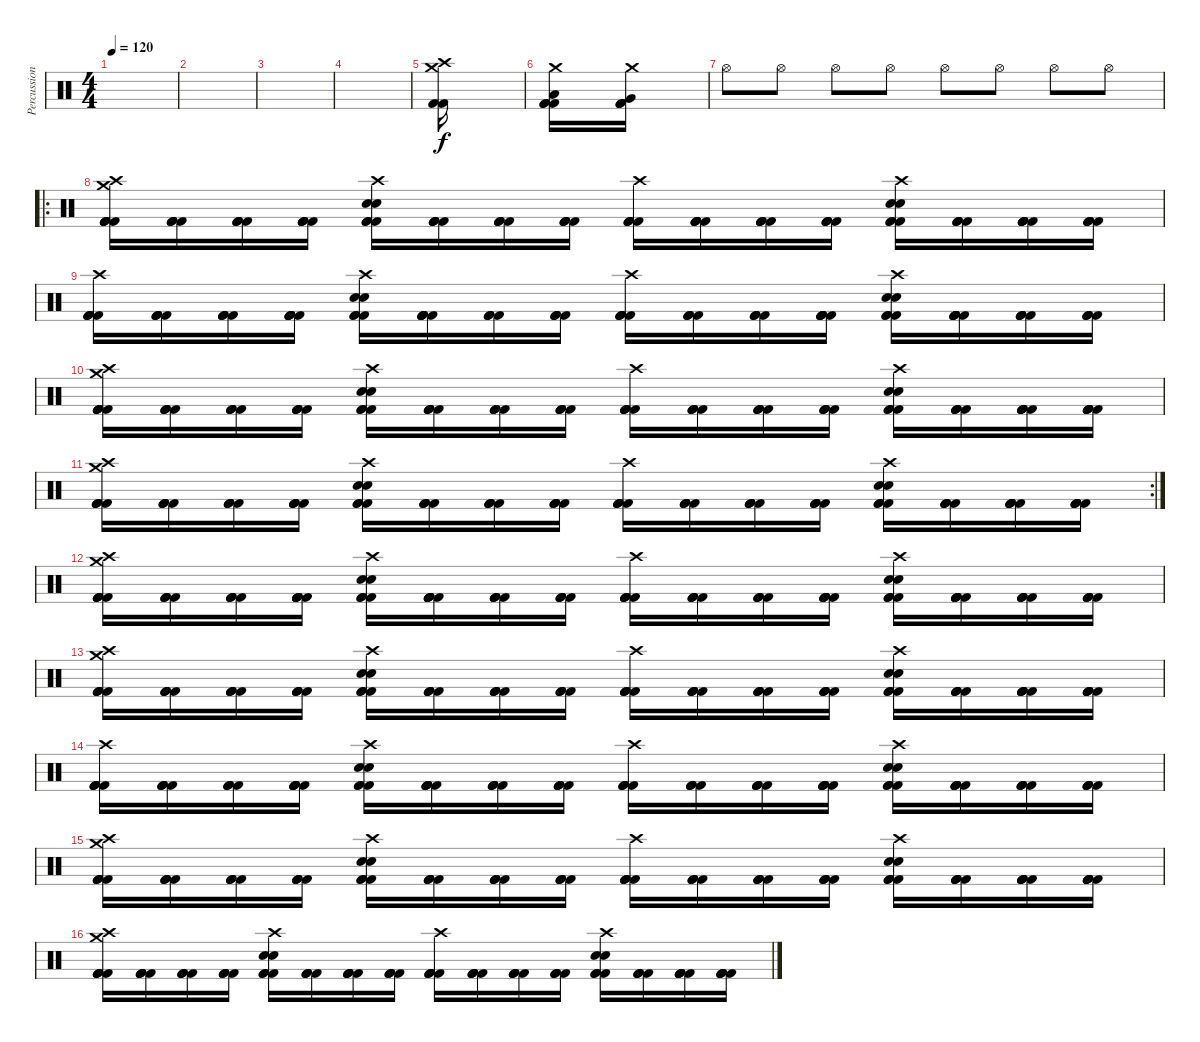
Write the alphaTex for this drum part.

\track ("Percussion" "Percussion") {instrument percussion}
\staff {score}
\articulation defaults
\ts (4 4)
\tempo 120
\clef neutral
\ks c
|
|
|
|
("Crash medium (hit)" "Crash high (hit)" "Kick (hit) 2" "Kick (hit) 2").16 |
("Crash medium (hit)" "Low Tom (hit)" "Kick (hit) 2" "Kick (hit) 2" "Kick (hit) 2").16 ("Crash medium (hit)" "Very Low Tom (hit)" "Kick (hit) 2" "Kick (hit) 2" "Kick (hit) 2").16 |
"Hi-Hat (open)".8 "Hi-Hat (open)".8 "Hi-Hat (open)".8 "Hi-Hat (open)".8 "Hi-Hat (open)".8 "Hi-Hat (open)".8 "Hi-Hat (open)".8 "Hi-Hat (open)".8 |
\ro
("Crash medium (hit)" "Kick (hit) 2" "Crash high (hit)" "Kick (hit) 2" "Kick (hit) 2" "Kick (hit) 2").16 ("Kick (hit) 2" "Kick (hit) 2" "Kick (hit) 2" "Kick (hit) 2").16 ("Kick (hit) 2" "Kick (hit) 2" "Kick (hit) 2" "Kick (hit) 2").16 ("Kick (hit) 2" "Kick (hit) 2" "Kick (hit) 2" "Kick (hit) 2").16 ("Snare (hit) 2" "Electric Snare (hit)" "Crash high (hit)" "Kick (hit) 2" "Kick (hit) 2" "Kick (hit) 2").16 ("Kick (hit) 2" "Kick (hit) 2" "Kick (hit) 2" "Kick (hit) 2").16 ("Kick (hit) 2" "Kick (hit) 2" "Kick (hit) 2" "Kick (hit) 2").16 ("Kick (hit) 2" "Kick (hit) 2" "Kick (hit) 2" "Kick (hit) 2").16 ("Kick (hit) 2" "Crash high (hit)" "Kick (hit) 2" "Kick (hit) 2" "Kick (hit) 2").16 ("Kick (hit) 2" "Kick (hit) 2" "Kick (hit) 2" "Kick (hit) 2").16 ("Kick (hit) 2" "Kick (hit) 2" "Kick (hit) 2" "Kick (hit) 2").16 ("Kick (hit) 2" "Kick (hit) 2" "Kick (hit) 2" "Kick (hit) 2").16 ("Snare (hit) 2" "Electric Snare (hit)" "Crash high (hit)" "Kick (hit) 2" "Kick (hit) 2" "Kick (hit) 2").16 ("Kick (hit) 2" "Kick (hit) 2" "Kick (hit) 2" "Kick (hit) 2").16 ("Kick (hit) 2" "Kick (hit) 2" "Kick (hit) 2" "Kick (hit) 2" "Kick (hit) 2").16 ("Kick (hit) 2" "Kick (hit) 2" "Kick (hit) 2" "Kick (hit) 2" "Kick (hit) 2").16 |
("Kick (hit) 2" "Crash high (hit)" "Kick (hit) 2" "Kick (hit) 2" "Kick (hit) 2").16 ("Kick (hit) 2" "Kick (hit) 2" "Kick (hit) 2" "Kick (hit) 2").16 ("Kick (hit) 2" "Kick (hit) 2" "Kick (hit) 2" "Kick (hit) 2").16 ("Kick (hit) 2" "Kick (hit) 2" "Kick (hit) 2" "Kick (hit) 2" "Kick (hit) 2" "Kick (hit) 2").16 ("Snare (hit) 2" "Electric Snare (hit)" "Crash high (hit)" "Kick (hit) 2" "Kick (hit) 2" "Kick (hit) 2").16 ("Kick (hit) 2" "Kick (hit) 2" "Kick (hit) 2" "Kick (hit) 2" "Kick (hit) 2" "Kick (hit) 2").16 ("Kick (hit) 2" "Kick (hit) 2" "Kick (hit) 2" "Kick (hit) 2").16 ("Kick (hit) 2" "Kick (hit) 2" "Kick (hit) 2" "Kick (hit) 2").16 ("Kick (hit) 2" "Crash high (hit)" "Kick (hit) 2" "Kick (hit) 2" "Kick (hit) 2").16 ("Kick (hit) 2" "Kick (hit) 2" "Kick (hit) 2" "Kick (hit) 2").16 ("Kick (hit) 2" "Kick (hit) 2" "Kick (hit) 2" "Kick (hit) 2").16 ("Kick (hit) 2" "Kick (hit) 2" "Kick (hit) 2" "Kick (hit) 2" "Kick (hit) 2" "Kick (hit) 2").16 ("Snare (hit) 2" "Electric Snare (hit)" "Crash high (hit)" "Kick (hit) 2" "Kick (hit) 2" "Kick (hit) 2").16 ("Kick (hit) 2" "Kick (hit) 2" "Kick (hit) 2" "Kick (hit) 2" "Kick (hit) 2" "Kick (hit) 2").16 ("Kick (hit) 2" "Kick (hit) 2" "Kick (hit) 2" "Kick (hit) 2").16 ("Kick (hit) 2" "Kick (hit) 2" "Kick (hit) 2" "Kick (hit) 2").16 |
("Crash medium (hit)" "Kick (hit) 2" "Crash high (hit)" "Kick (hit) 2" "Kick (hit) 2" "Kick (hit) 2").16 ("Kick (hit) 2" "Kick (hit) 2" "Kick (hit) 2" "Kick (hit) 2").16 ("Kick (hit) 2" "Kick (hit) 2" "Kick (hit) 2" "Kick (hit) 2").16 ("Kick (hit) 2" "Kick (hit) 2" "Kick (hit) 2" "Kick (hit) 2").16 ("Snare (hit) 2" "Electric Snare (hit)" "Crash high (hit)" "Kick (hit) 2" "Kick (hit) 2" "Kick (hit) 2").16 ("Kick (hit) 2" "Kick (hit) 2" "Kick (hit) 2" "Kick (hit) 2").16 ("Kick (hit) 2" "Kick (hit) 2" "Kick (hit) 2" "Kick (hit) 2").16 ("Kick (hit) 2" "Kick (hit) 2" "Kick (hit) 2" "Kick (hit) 2").16 ("Kick (hit) 2" "Crash high (hit)" "Kick (hit) 2" "Kick (hit) 2" "Kick (hit) 2").16 ("Kick (hit) 2" "Kick (hit) 2" "Kick (hit) 2" "Kick (hit) 2").16 ("Kick (hit) 2" "Kick (hit) 2" "Kick (hit) 2" "Kick (hit) 2").16 ("Kick (hit) 2" "Kick (hit) 2" "Kick (hit) 2" "Kick (hit) 2").16 ("Snare (hit) 2" "Electric Snare (hit)" "Crash high (hit)" "Kick (hit) 2" "Kick (hit) 2" "Kick (hit) 2").16 ("Kick (hit) 2" "Kick (hit) 2" "Kick (hit) 2" "Kick (hit) 2").16 ("Kick (hit) 2" "Kick (hit) 2" "Kick (hit) 2" "Kick (hit) 2" "Kick (hit) 2").16 ("Kick (hit) 2" "Kick (hit) 2" "Kick (hit) 2" "Kick (hit) 2" "Kick (hit) 2").16 |
\rc 2
("Crash medium (hit)" "Kick (hit) 2" "Crash high (hit)" "Kick (hit) 2" "Kick (hit) 2" "Kick (hit) 2").16 ("Kick (hit) 2" "Kick (hit) 2" "Kick (hit) 2" "Kick (hit) 2").16 ("Kick (hit) 2" "Kick (hit) 2" "Kick (hit) 2" "Kick (hit) 2").16 ("Kick (hit) 2" "Kick (hit) 2" "Kick (hit) 2" "Kick (hit) 2").16 ("Snare (hit) 2" "Electric Snare (hit)" "Crash high (hit)" "Kick (hit) 2" "Kick (hit) 2" "Kick (hit) 2").16 ("Kick (hit) 2" "Kick (hit) 2" "Kick (hit) 2" "Kick (hit) 2").16 ("Kick (hit) 2" "Kick (hit) 2" "Kick (hit) 2" "Kick (hit) 2").16 ("Kick (hit) 2" "Kick (hit) 2" "Kick (hit) 2" "Kick (hit) 2").16 ("Kick (hit) 2" "Crash high (hit)" "Kick (hit) 2" "Kick (hit) 2" "Kick (hit) 2").16 ("Kick (hit) 2" "Kick (hit) 2" "Kick (hit) 2" "Kick (hit) 2").16 ("Kick (hit) 2" "Kick (hit) 2" "Kick (hit) 2" "Kick (hit) 2").16 ("Kick (hit) 2" "Kick (hit) 2" "Kick (hit) 2" "Kick (hit) 2").16 ("Snare (hit) 2" "Electric Snare (hit)" "Crash high (hit)" "Kick (hit) 2" "Kick (hit) 2" "Kick (hit) 2").16 ("Kick (hit) 2" "Kick (hit) 2" "Kick (hit) 2" "Kick (hit) 2").16 ("Kick (hit) 2" "Kick (hit) 2" "Kick (hit) 2" "Kick (hit) 2" "Kick (hit) 2").16 ("Kick (hit) 2" "Kick (hit) 2" "Kick (hit) 2" "Kick (hit) 2" "Kick (hit) 2").16 |
("Kick (hit) 2" "Crash medium (hit)" "Crash high (hit)" "Kick (hit) 2" "Kick (hit) 2" "Kick (hit) 2").16 ("Kick (hit) 2" "Kick (hit) 2" "Kick (hit) 2" "Kick (hit) 2").16 ("Kick (hit) 2" "Kick (hit) 2" "Kick (hit) 2" "Kick (hit) 2").16 ("Kick (hit) 2" "Kick (hit) 2" "Kick (hit) 2" "Kick (hit) 2" "Kick (hit) 2" "Kick (hit) 2").16 ("Snare (hit) 2" "Electric Snare (hit)" "Crash high (hit)" "Kick (hit) 2" "Kick (hit) 2" "Kick (hit) 2").16 ("Kick (hit) 2" "Kick (hit) 2" "Kick (hit) 2" "Kick (hit) 2" "Kick (hit) 2" "Kick (hit) 2").16 ("Kick (hit) 2" "Kick (hit) 2" "Kick (hit) 2" "Kick (hit) 2").16 ("Kick (hit) 2" "Kick (hit) 2" "Kick (hit) 2" "Kick (hit) 2").16 ("Kick (hit) 2" "Crash high (hit)" "Kick (hit) 2" "Kick (hit) 2" "Kick (hit) 2").16 ("Kick (hit) 2" "Kick (hit) 2" "Kick (hit) 2" "Kick (hit) 2").16 ("Kick (hit) 2" "Kick (hit) 2" "Kick (hit) 2" "Kick (hit) 2").16 ("Kick (hit) 2" "Kick (hit) 2" "Kick (hit) 2" "Kick (hit) 2" "Kick (hit) 2" "Kick (hit) 2").16 ("Snare (hit) 2" "Electric Snare (hit)" "Crash high (hit)" "Kick (hit) 2" "Kick (hit) 2" "Kick (hit) 2").16 ("Kick (hit) 2" "Kick (hit) 2" "Kick (hit) 2" "Kick (hit) 2" "Kick (hit) 2" "Kick (hit) 2").16 ("Kick (hit) 2" "Kick (hit) 2" "Kick (hit) 2" "Kick (hit) 2").16 ("Kick (hit) 2" "Kick (hit) 2" "Kick (hit) 2" "Kick (hit) 2").16 |
("Crash medium (hit)" "Kick (hit) 2" "Crash high (hit)" "Kick (hit) 2" "Kick (hit) 2" "Kick (hit) 2").16 ("Kick (hit) 2" "Kick (hit) 2" "Kick (hit) 2" "Kick (hit) 2").16 ("Kick (hit) 2" "Kick (hit) 2" "Kick (hit) 2" "Kick (hit) 2").16 ("Kick (hit) 2" "Kick (hit) 2" "Kick (hit) 2" "Kick (hit) 2").16 ("Snare (hit) 2" "Electric Snare (hit)" "Crash high (hit)" "Kick (hit) 2" "Kick (hit) 2" "Kick (hit) 2").16 ("Kick (hit) 2" "Kick (hit) 2" "Kick (hit) 2" "Kick (hit) 2").16 ("Kick (hit) 2" "Kick (hit) 2" "Kick (hit) 2" "Kick (hit) 2").16 ("Kick (hit) 2" "Kick (hit) 2" "Kick (hit) 2" "Kick (hit) 2").16 ("Kick (hit) 2" "Crash high (hit)" "Kick (hit) 2" "Kick (hit) 2" "Kick (hit) 2").16 ("Kick (hit) 2" "Kick (hit) 2" "Kick (hit) 2" "Kick (hit) 2").16 ("Kick (hit) 2" "Kick (hit) 2" "Kick (hit) 2" "Kick (hit) 2").16 ("Kick (hit) 2" "Kick (hit) 2" "Kick (hit) 2" "Kick (hit) 2").16 ("Snare (hit) 2" "Electric Snare (hit)" "Crash high (hit)" "Kick (hit) 2" "Kick (hit) 2" "Kick (hit) 2").16 ("Kick (hit) 2" "Kick (hit) 2" "Kick (hit) 2" "Kick (hit) 2").16 ("Kick (hit) 2" "Kick (hit) 2" "Kick (hit) 2" "Kick (hit) 2" "Kick (hit) 2").16 ("Kick (hit) 2" "Kick (hit) 2" "Kick (hit) 2" "Kick (hit) 2" "Kick (hit) 2").16 |
("Kick (hit) 2" "Crash high (hit)" "Kick (hit) 2" "Kick (hit) 2" "Kick (hit) 2").16 ("Kick (hit) 2" "Kick (hit) 2" "Kick (hit) 2" "Kick (hit) 2").16 ("Kick (hit) 2" "Kick (hit) 2" "Kick (hit) 2" "Kick (hit) 2").16 ("Kick (hit) 2" "Kick (hit) 2" "Kick (hit) 2" "Kick (hit) 2" "Kick (hit) 2" "Kick (hit) 2").16 ("Snare (hit) 2" "Electric Snare (hit)" "Crash high (hit)" "Kick (hit) 2" "Kick (hit) 2" "Kick (hit) 2").16 ("Kick (hit) 2" "Kick (hit) 2" "Kick (hit) 2" "Kick (hit) 2" "Kick (hit) 2" "Kick (hit) 2").16 ("Kick (hit) 2" "Kick (hit) 2" "Kick (hit) 2" "Kick (hit) 2").16 ("Kick (hit) 2" "Kick (hit) 2" "Kick (hit) 2" "Kick (hit) 2").16 ("Kick (hit) 2" "Crash high (hit)" "Kick (hit) 2" "Kick (hit) 2" "Kick (hit) 2").16 ("Kick (hit) 2" "Kick (hit) 2" "Kick (hit) 2" "Kick (hit) 2").16 ("Kick (hit) 2" "Kick (hit) 2" "Kick (hit) 2" "Kick (hit) 2").16 ("Kick (hit) 2" "Kick (hit) 2" "Kick (hit) 2" "Kick (hit) 2" "Kick (hit) 2" "Kick (hit) 2").16 ("Snare (hit) 2" "Electric Snare (hit)" "Crash high (hit)" "Kick (hit) 2" "Kick (hit) 2" "Kick (hit) 2").16 ("Kick (hit) 2" "Kick (hit) 2" "Kick (hit) 2" "Kick (hit) 2" "Kick (hit) 2" "Kick (hit) 2").16 ("Kick (hit) 2" "Kick (hit) 2" "Kick (hit) 2" "Kick (hit) 2").16 ("Kick (hit) 2" "Kick (hit) 2" "Kick (hit) 2" "Kick (hit) 2").16 |
("Crash medium (hit)" "Kick (hit) 2" "Crash high (hit)" "Kick (hit) 2" "Kick (hit) 2" "Kick (hit) 2").16 ("Kick (hit) 2" "Kick (hit) 2" "Kick (hit) 2" "Kick (hit) 2").16 ("Kick (hit) 2" "Kick (hit) 2" "Kick (hit) 2" "Kick (hit) 2").16 ("Kick (hit) 2" "Kick (hit) 2" "Kick (hit) 2" "Kick (hit) 2").16 ("Snare (hit) 2" "Electric Snare (hit)" "Crash high (hit)" "Kick (hit) 2" "Kick (hit) 2" "Kick (hit) 2").16 ("Kick (hit) 2" "Kick (hit) 2" "Kick (hit) 2" "Kick (hit) 2").16 ("Kick (hit) 2" "Kick (hit) 2" "Kick (hit) 2" "Kick (hit) 2").16 ("Kick (hit) 2" "Kick (hit) 2" "Kick (hit) 2" "Kick (hit) 2").16 ("Kick (hit) 2" "Crash high (hit)" "Kick (hit) 2" "Kick (hit) 2" "Kick (hit) 2").16 ("Kick (hit) 2" "Kick (hit) 2" "Kick (hit) 2" "Kick (hit) 2").16 ("Kick (hit) 2" "Kick (hit) 2" "Kick (hit) 2" "Kick (hit) 2").16 ("Kick (hit) 2" "Kick (hit) 2" "Kick (hit) 2" "Kick (hit) 2").16 ("Snare (hit) 2" "Electric Snare (hit)" "Crash high (hit)" "Kick (hit) 2" "Kick (hit) 2" "Kick (hit) 2").16 ("Kick (hit) 2" "Kick (hit) 2" "Kick (hit) 2" "Kick (hit) 2").16 ("Kick (hit) 2" "Kick (hit) 2" "Kick (hit) 2" "Kick (hit) 2" "Kick (hit) 2").16 ("Kick (hit) 2" "Kick (hit) 2" "Kick (hit) 2" "Kick (hit) 2" "Kick (hit) 2").16 |
("Crash medium (hit)" "Kick (hit) 2" "Crash high (hit)" "Kick (hit) 2" "Kick (hit) 2" "Kick (hit) 2").16 ("Kick (hit) 2" "Kick (hit) 2" "Kick (hit) 2" "Kick (hit) 2").16 ("Kick (hit) 2" "Kick (hit) 2" "Kick (hit) 2" "Kick (hit) 2").16 ("Kick (hit) 2" "Kick (hit) 2" "Kick (hit) 2" "Kick (hit) 2").16 ("Snare (hit) 2" "Electric Snare (hit)" "Crash high (hit)" "Kick (hit) 2" "Kick (hit) 2" "Kick (hit) 2").16 ("Kick (hit) 2" "Kick (hit) 2" "Kick (hit) 2" "Kick (hit) 2").16 ("Kick (hit) 2" "Kick (hit) 2" "Kick (hit) 2" "Kick (hit) 2").16 ("Kick (hit) 2" "Kick (hit) 2" "Kick (hit) 2" "Kick (hit) 2").16 ("Kick (hit) 2" "Crash high (hit)" "Kick (hit) 2" "Kick (hit) 2" "Kick (hit) 2").16 ("Kick (hit) 2" "Kick (hit) 2" "Kick (hit) 2" "Kick (hit) 2").16 ("Kick (hit) 2" "Kick (hit) 2" "Kick (hit) 2" "Kick (hit) 2").16 ("Kick (hit) 2" "Kick (hit) 2" "Kick (hit) 2" "Kick (hit) 2").16 ("Snare (hit) 2" "Electric Snare (hit)" "Crash high (hit)" "Kick (hit) 2" "Kick (hit) 2" "Kick (hit) 2").16 ("Kick (hit) 2" "Kick (hit) 2" "Kick (hit) 2" "Kick (hit) 2").16 ("Kick (hit) 2" "Kick (hit) 2" "Kick (hit) 2" "Kick (hit) 2" "Kick (hit) 2").16 ("Kick (hit) 2" "Kick (hit) 2" "Kick (hit) 2" "Kick (hit) 2" "Kick (hit) 2").16
